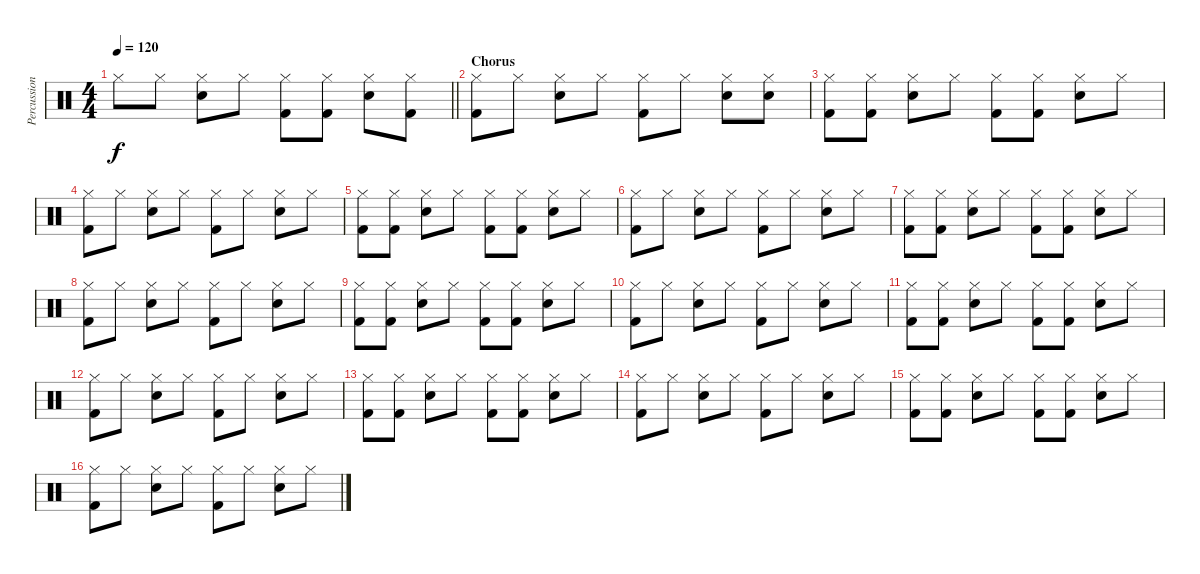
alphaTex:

\track ("Percussion" "Percussion") {instrument percussion}
\staff {score}
\articulation defaults
\ts (4 4)
\tempo 120
\clef neutral
\barLineRight lightlight
\ks c "Hi-Hat (closed)".8{dy f} "Hi-Hat (closed)".8
("Hi-Hat (closed)" "Electric Snare (hit)").8 "Hi-Hat (closed)".8 ("Hi-Hat (closed)" "Kick (hit) 2").8 ("Hi-Hat (closed)" "Kick (hit) 2").8 ("Hi-Hat (closed)" "Electric Snare (hit)").8 ("Hi-Hat (closed)" "Kick (hit) 2").8 |
\section ("" "Chorus")
("Hi-Hat (closed)" "Kick (hit) 2").8 "Hi-Hat (closed)".8 ("Hi-Hat (closed)" "Electric Snare (hit)").8 "Hi-Hat (closed)".8 ("Hi-Hat (closed)" "Kick (hit) 2").8 "Hi-Hat (closed)".8 ("Hi-Hat (closed)" "Electric Snare (hit)").8 ("Hi-Hat (closed)" "Electric Snare (hit)").8 |
("Hi-Hat (closed)" "Kick (hit) 2").8 ("Hi-Hat (closed)" "Kick (hit) 2").8 ("Hi-Hat (closed)" "Electric Snare (hit)").8 "Hi-Hat (closed)".8 ("Hi-Hat (closed)" "Kick (hit) 2").8 ("Hi-Hat (closed)" "Kick (hit) 2").8 ("Hi-Hat (closed)" "Electric Snare (hit)").8 "Hi-Hat (closed)".8 |
("Hi-Hat (closed)" "Kick (hit) 2").8 "Hi-Hat (closed)".8 ("Hi-Hat (closed)" "Electric Snare (hit)").8 "Hi-Hat (closed)".8 ("Hi-Hat (closed)" "Kick (hit) 2").8 "Hi-Hat (closed)".8 ("Hi-Hat (closed)" "Electric Snare (hit)").8 "Hi-Hat (closed)".8 |
("Hi-Hat (closed)" "Kick (hit) 2").8 ("Hi-Hat (closed)" "Kick (hit) 2").8 ("Hi-Hat (closed)" "Electric Snare (hit)").8 "Hi-Hat (closed)".8 ("Hi-Hat (closed)" "Kick (hit) 2").8 ("Hi-Hat (closed)" "Kick (hit) 2").8 ("Hi-Hat (closed)" "Electric Snare (hit)").8 "Hi-Hat (closed)".8 |
("Hi-Hat (closed)" "Kick (hit) 2").8 "Hi-Hat (closed)".8 ("Hi-Hat (closed)" "Electric Snare (hit)").8 "Hi-Hat (closed)".8 ("Hi-Hat (closed)" "Kick (hit) 2").8 "Hi-Hat (closed)".8 ("Hi-Hat (closed)" "Electric Snare (hit)").8 "Hi-Hat (closed)".8 |
("Hi-Hat (closed)" "Kick (hit) 2").8 ("Hi-Hat (closed)" "Kick (hit) 2").8 ("Hi-Hat (closed)" "Electric Snare (hit)").8 "Hi-Hat (closed)".8 ("Hi-Hat (closed)" "Kick (hit) 2").8 ("Hi-Hat (closed)" "Kick (hit) 2").8 ("Hi-Hat (closed)" "Electric Snare (hit)").8 "Hi-Hat (closed)".8 |
("Hi-Hat (closed)" "Kick (hit) 2").8 "Hi-Hat (closed)".8 ("Hi-Hat (closed)" "Electric Snare (hit)").8 "Hi-Hat (closed)".8 ("Hi-Hat (closed)" "Kick (hit) 2").8 "Hi-Hat (closed)".8 ("Hi-Hat (closed)" "Electric Snare (hit)").8 "Hi-Hat (closed)".8 |
("Hi-Hat (closed)" "Kick (hit) 2").8 ("Hi-Hat (closed)" "Kick (hit) 2").8 ("Hi-Hat (closed)" "Electric Snare (hit)").8 "Hi-Hat (closed)".8 ("Hi-Hat (closed)" "Kick (hit) 2").8 ("Hi-Hat (closed)" "Kick (hit) 2").8 ("Hi-Hat (closed)" "Electric Snare (hit)").8 "Hi-Hat (closed)".8 |
("Hi-Hat (closed)" "Kick (hit) 2").8 "Hi-Hat (closed)".8 ("Hi-Hat (closed)" "Electric Snare (hit)").8 "Hi-Hat (closed)".8 ("Hi-Hat (closed)" "Kick (hit) 2").8 "Hi-Hat (closed)".8 ("Hi-Hat (closed)" "Electric Snare (hit)").8 "Hi-Hat (closed)".8 |
("Hi-Hat (closed)" "Kick (hit) 2").8 ("Hi-Hat (closed)" "Kick (hit) 2").8 ("Hi-Hat (closed)" "Electric Snare (hit)").8 "Hi-Hat (closed)".8 ("Hi-Hat (closed)" "Kick (hit) 2").8 ("Hi-Hat (closed)" "Kick (hit) 2").8 ("Hi-Hat (closed)" "Electric Snare (hit)").8 "Hi-Hat (closed)".8 |
("Hi-Hat (closed)" "Kick (hit) 2").8 "Hi-Hat (closed)".8 ("Hi-Hat (closed)" "Electric Snare (hit)").8 "Hi-Hat (closed)".8 ("Hi-Hat (closed)" "Kick (hit) 2").8 "Hi-Hat (closed)".8 ("Hi-Hat (closed)" "Electric Snare (hit)").8 "Hi-Hat (closed)".8 |
("Hi-Hat (closed)" "Kick (hit) 2").8 ("Hi-Hat (closed)" "Kick (hit) 2").8 ("Hi-Hat (closed)" "Electric Snare (hit)").8 "Hi-Hat (closed)".8 ("Hi-Hat (closed)" "Kick (hit) 2").8 ("Hi-Hat (closed)" "Kick (hit) 2").8 ("Hi-Hat (closed)" "Electric Snare (hit)").8 "Hi-Hat (closed)".8 |
("Hi-Hat (closed)" "Kick (hit) 2").8 "Hi-Hat (closed)".8 ("Hi-Hat (closed)" "Electric Snare (hit)").8 "Hi-Hat (closed)".8 ("Hi-Hat (closed)" "Kick (hit) 2").8 "Hi-Hat (closed)".8 ("Hi-Hat (closed)" "Electric Snare (hit)").8 "Hi-Hat (closed)".8 |
("Hi-Hat (closed)" "Kick (hit) 2").8 ("Hi-Hat (closed)" "Kick (hit) 2").8 ("Hi-Hat (closed)" "Electric Snare (hit)").8 "Hi-Hat (closed)".8 ("Hi-Hat (closed)" "Kick (hit) 2").8 ("Hi-Hat (closed)" "Kick (hit) 2").8 ("Hi-Hat (closed)" "Electric Snare (hit)").8 "Hi-Hat (closed)".8 |
("Hi-Hat (closed)" "Kick (hit) 2").8 "Hi-Hat (closed)".8 ("Hi-Hat (closed)" "Electric Snare (hit)").8 "Hi-Hat (closed)".8 ("Hi-Hat (closed)" "Kick (hit) 2").8 "Hi-Hat (closed)".8 ("Hi-Hat (closed)" "Electric Snare (hit)").8 "Hi-Hat (closed)".8
